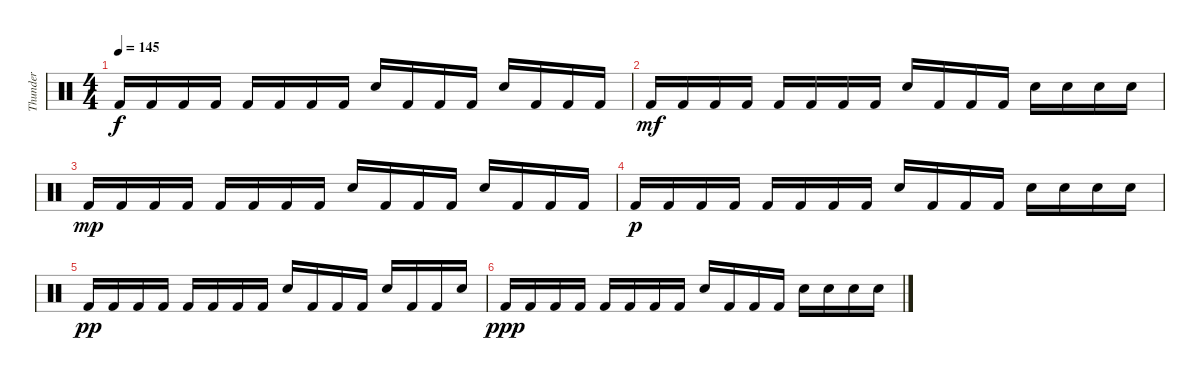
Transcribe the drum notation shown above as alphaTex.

\track ("Thunder" "Thunder") {instrument percussion}
\staff {score}
\articulation defaults
\ts (4 4)
\tempo 145
\clef neutral
\ks c "Kick (hit) 2".16{dy f} "Kick (hit) 2".16 "Kick (hit) 2".16 "Kick (hit) 2".16 "Kick (hit) 2".16 "Kick (hit) 2".16 "Kick (hit) 2".16 "Kick (hit) 2".16 "Electric Snare (hit)".16 "Kick (hit) 2".16 "Kick (hit) 2".16 "Kick (hit) 2".16 "Electric Snare (hit)".16 "Kick (hit) 2".16 "Kick (hit) 2".16 "Kick (hit) 2".16
|
"Kick (hit) 2".16{dy mf} "Kick (hit) 2".16 "Kick (hit) 2".16 "Kick (hit) 2".16 "Kick (hit) 2".16 "Kick (hit) 2".16 "Kick (hit) 2".16 "Kick (hit) 2".16 "Electric Snare (hit)".16 "Kick (hit) 2".16 "Kick (hit) 2".16 "Kick (hit) 2".16 "Electric Snare (hit)".16 "Electric Snare (hit)".16 "Electric Snare (hit)".16 "Electric Snare (hit)".16 |
"Kick (hit) 2".16{dy mp} "Kick (hit) 2".16 "Kick (hit) 2".16 "Kick (hit) 2".16 "Kick (hit) 2".16 "Kick (hit) 2".16 "Kick (hit) 2".16 "Kick (hit) 2".16 "Electric Snare (hit)".16 "Kick (hit) 2".16 "Kick (hit) 2".16 "Kick (hit) 2".16 "Electric Snare (hit)".16 "Kick (hit) 2".16 "Kick (hit) 2".16 "Kick (hit) 2".16 |
"Kick (hit) 2".16{dy p} "Kick (hit) 2".16 "Kick (hit) 2".16 "Kick (hit) 2".16 "Kick (hit) 2".16 "Kick (hit) 2".16 "Kick (hit) 2".16 "Kick (hit) 2".16 "Electric Snare (hit)".16 "Kick (hit) 2".16 "Kick (hit) 2".16 "Kick (hit) 2".16 "Electric Snare (hit)".16 "Electric Snare (hit)".16 "Electric Snare (hit)".16 "Electric Snare (hit)".16 |
"Kick (hit) 2".16{dy pp} "Kick (hit) 2".16 "Kick (hit) 2".16 "Kick (hit) 2".16 "Kick (hit) 2".16 "Kick (hit) 2".16 "Kick (hit) 2".16 "Kick (hit) 2".16 "Electric Snare (hit)".16 "Kick (hit) 2".16 "Kick (hit) 2".16 "Kick (hit) 2".16 "Electric Snare (hit)".16 "Kick (hit) 2".16 "Kick (hit) 2".16 "Electric Snare (hit)".16 |
"Kick (hit) 2".16{dy ppp} "Kick (hit) 2".16 "Kick (hit) 2".16 "Kick (hit) 2".16 "Kick (hit) 2".16 "Kick (hit) 2".16 "Kick (hit) 2".16 "Kick (hit) 2".16 "Electric Snare (hit)".16 "Kick (hit) 2".16 "Kick (hit) 2".16 "Kick (hit) 2".16 "Electric Snare (hit)".16 "Electric Snare (hit)".16 "Electric Snare (hit)".16 "Electric Snare (hit)".16
